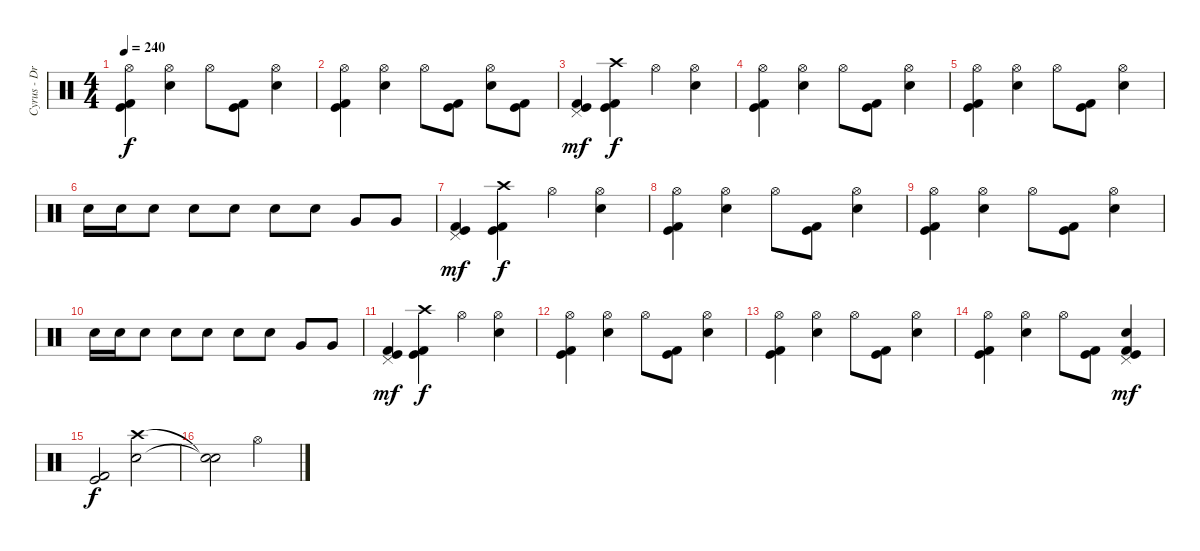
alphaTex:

\track ("Cyrus - Drums" "Cyrus - Dr") {instrument percussion}
\staff {score}
\articulation defaults
\ts (4 4)
\tempo 240
\clef neutral
\ks c
("Kick (hit)" "Kick (hit) 2" "Hi-Hat (open)").4{dy f} ("Electric Snare (hit)" "Hi-Hat (open)").4 "Hi-Hat (open)".8 ("Kick (hit)" "Kick (hit) 2").8 ("Electric Snare (hit)" "Hi-Hat (open)").4 |
("Kick (hit)" "Kick (hit) 2" "Hi-Hat (open)").4 ("Electric Snare (hit)" "Hi-Hat (open)").4 "Hi-Hat (open)".8 ("Kick (hit)" "Kick (hit) 2").8 ("Electric Snare (hit)" "Hi-Hat (open)").8 ("Kick (hit)" "Kick (hit) 2").8 |
("Kick (hit)" "Kick (hit) 2" "Pedal Hi-Hat (hit)").4{dy mf} ("Kick (hit)" "Kick (hit) 2" "Crash high (hit)").4{dy f} "Hi-Hat (open)".4 ("Electric Snare (hit)" "Hi-Hat (open)").4 |
("Kick (hit)" "Kick (hit) 2" "Hi-Hat (open)").4 ("Electric Snare (hit)" "Hi-Hat (open)").4 "Hi-Hat (open)".8 ("Kick (hit)" "Kick (hit) 2").8 ("Electric Snare (hit)" "Hi-Hat (open)").4 |
("Kick (hit)" "Kick (hit) 2" "Hi-Hat (open)").4 ("Electric Snare (hit)" "Hi-Hat (open)").4 "Hi-Hat (open)".8 ("Kick (hit)" "Kick (hit) 2").8 ("Electric Snare (hit)" "Hi-Hat (open)").4 |
"Electric Snare (hit)".16 "Electric Snare (hit)".16 "Electric Snare (hit)".8 "Electric Snare (hit)".8 "Electric Snare (hit)".8 "Electric Snare (hit)".8 "Electric Snare (hit)".8 "Very Low Tom (hit)".8 "Very Low Tom (hit)".8 |
("Kick (hit)" "Kick (hit) 2" "Pedal Hi-Hat (hit)").4{dy mf} ("Kick (hit)" "Kick (hit) 2" "Crash high (hit)").4{dy f} "Hi-Hat (open)".4 ("Electric Snare (hit)" "Hi-Hat (open)").4 |
("Kick (hit)" "Kick (hit) 2" "Hi-Hat (open)").4 ("Electric Snare (hit)" "Hi-Hat (open)").4 "Hi-Hat (open)".8 ("Kick (hit)" "Kick (hit) 2").8 ("Electric Snare (hit)" "Hi-Hat (open)").4 |
("Kick (hit)" "Kick (hit) 2" "Hi-Hat (open)").4 ("Electric Snare (hit)" "Hi-Hat (open)").4 "Hi-Hat (open)".8 ("Kick (hit)" "Kick (hit) 2").8 ("Electric Snare (hit)" "Hi-Hat (open)").4 |
"Electric Snare (hit)".16 "Electric Snare (hit)".16 "Electric Snare (hit)".8 "Electric Snare (hit)".8 "Electric Snare (hit)".8 "Electric Snare (hit)".8 "Electric Snare (hit)".8 "Very Low Tom (hit)".8 "Very Low Tom (hit)".8 |
("Kick (hit)" "Kick (hit) 2" "Pedal Hi-Hat (hit)").4{dy mf} ("Kick (hit)" "Kick (hit) 2" "Crash high (hit)").4{dy f} "Hi-Hat (open)".4 ("Electric Snare (hit)" "Hi-Hat (open)").4 |
("Kick (hit)" "Kick (hit) 2" "Hi-Hat (open)").4 ("Electric Snare (hit)" "Hi-Hat (open)").4 "Hi-Hat (open)".8 ("Kick (hit)" "Kick (hit) 2").8 ("Electric Snare (hit)" "Hi-Hat (open)").4 |
("Kick (hit)" "Kick (hit) 2" "Hi-Hat (open)").4 ("Electric Snare (hit)" "Hi-Hat (open)").4 "Hi-Hat (open)".8 ("Kick (hit)" "Kick (hit) 2").8 ("Electric Snare (hit)" "Hi-Hat (open)").4 |
("Kick (hit)" "Kick (hit) 2" "Hi-Hat (open)").4 ("Electric Snare (hit)" "Hi-Hat (open)").4 "Hi-Hat (open)".8 ("Kick (hit)" "Kick (hit) 2").8 ("Kick (hit)" "Kick (hit) 2" "Electric Snare (hit)" "Pedal Hi-Hat (hit)").4{dy mf} |
("Kick (hit)" "Kick (hit) 2").2{dy f} ("Electric Snare (hit)" "Crash high (hit)").2 |
("Snare (hit)"{t} "Snare (hit)"{t}).2 "Hi-Hat (open)".2
